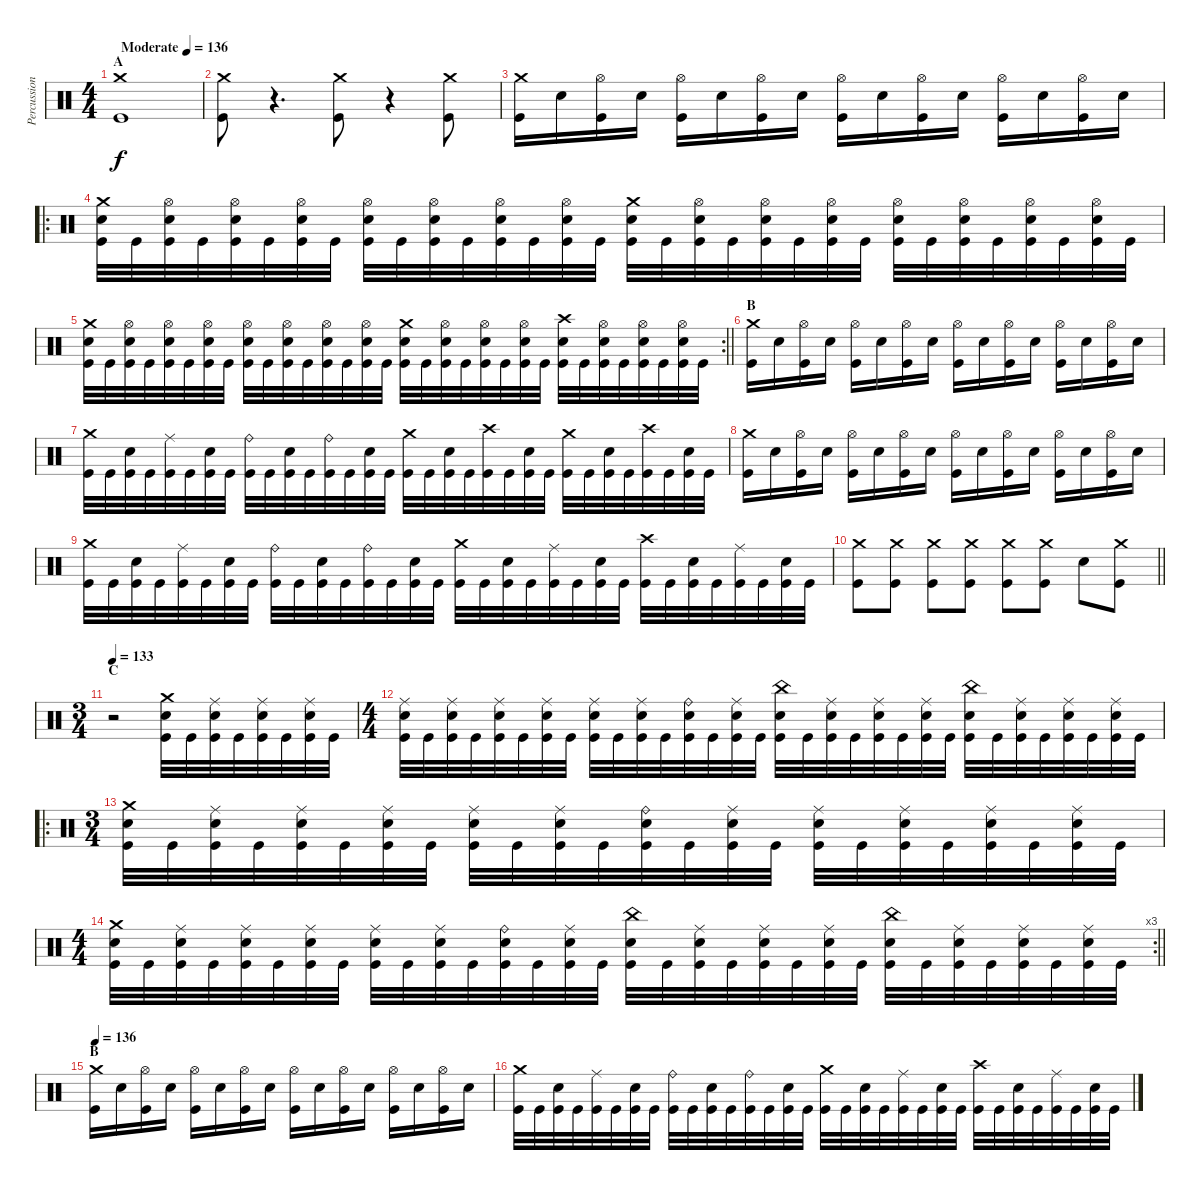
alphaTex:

\track ("Percussion" "Percussion") {instrument percussion}
\staff {score}
\articulation defaults
\ts (4 4)
\section ("" "A")
\tempo (136 "Moderate")
\clef neutral
\ks c
("Kick (hit)" "Crash medium (hit)").1{dy f} |
("Kick (hit)" "Crash medium (hit)").8 r.4{d volume 0} ("Kick (hit)" "Crash medium (hit)").8{volume 13} r.4{volume 0} ("Kick (hit)" "Crash medium (hit)").8{volume 13} |
("Kick (hit)" "Crash medium (hit)").16 "Snare (hit) 2".16 ("Kick (hit)" "Hi-Hat (open)").16 "Snare (hit) 2".16 ("Kick (hit)" "Hi-Hat (open)").16 "Snare (hit) 2".16 ("Kick (hit)" "Hi-Hat (open)").16 "Snare (hit) 2".16 ("Kick (hit)" "Hi-Hat (open)").16 "Snare (hit) 2".16 ("Kick (hit)" "Hi-Hat (open)").16 "Snare (hit) 2".16 ("Kick (hit)" "Hi-Hat (open)").16 "Snare (hit) 2".16 ("Kick (hit)" "Hi-Hat (open)").16 "Snare (hit) 2".16 |
\ro
("Kick (hit)" "Snare (hit) 2" "Crash medium (hit)").32 "Kick (hit)".32 ("Kick (hit)" "Snare (hit) 2" "Hi-Hat (open)").32 "Kick (hit)".32 ("Kick (hit)" "Snare (hit) 2" "Hi-Hat (open)").32 "Kick (hit)".32 ("Kick (hit)" "Snare (hit) 2" "Hi-Hat (open)").32 "Kick (hit)".32 ("Kick (hit)" "Snare (hit) 2" "Hi-Hat (open)").32 "Kick (hit)".32 ("Kick (hit)" "Snare (hit) 2" "Hi-Hat (open)").32 "Kick (hit)".32 ("Kick (hit)" "Snare (hit) 2" "Hi-Hat (open)").32 "Kick (hit)".32 ("Kick (hit)" "Snare (hit) 2" "Hi-Hat (open)").32 "Kick (hit)".32 ("Kick (hit)" "Snare (hit) 2" "Crash medium (hit)").32 "Kick (hit)".32 ("Kick (hit)" "Snare (hit) 2" "Hi-Hat (open)").32 "Kick (hit)".32 ("Kick (hit)" "Snare (hit) 2" "Hi-Hat (open)").32 "Kick (hit)".32 ("Kick (hit)" "Snare (hit) 2" "Hi-Hat (open)").32 "Kick (hit)".32 ("Kick (hit)" "Snare (hit) 2" "Hi-Hat (open)").32 "Kick (hit)".32 ("Kick (hit)" "Snare (hit) 2" "Hi-Hat (open)").32 "Kick (hit)".32 ("Kick (hit)" "Snare (hit) 2" "Hi-Hat (open)").32 "Kick (hit)".32 ("Kick (hit)" "Snare (hit) 2" "Hi-Hat (open)").32 "Kick (hit)".32 |
\rc 2
\barLineRight lightlight
("Kick (hit)" "Snare (hit) 2" "Crash medium (hit)").32 "Kick (hit)".32 ("Kick (hit)" "Snare (hit) 2" "Hi-Hat (open)").32 "Kick (hit)".32 ("Kick (hit)" "Snare (hit) 2" "Hi-Hat (open)").32 "Kick (hit)".32 ("Kick (hit)" "Snare (hit) 2" "Hi-Hat (open)").32 "Kick (hit)".32 ("Kick (hit)" "Snare (hit) 2" "Hi-Hat (open)").32 "Kick (hit)".32 ("Kick (hit)" "Snare (hit) 2" "Hi-Hat (open)").32 "Kick (hit)".32 ("Kick (hit)" "Snare (hit) 2" "Hi-Hat (open)").32 "Kick (hit)".32 ("Kick (hit)" "Snare (hit) 2" "Hi-Hat (open)").32 "Kick (hit)".32 ("Kick (hit)" "Snare (hit) 2" "Crash medium (hit)").32 "Kick (hit)".32 ("Kick (hit)" "Snare (hit) 2" "Hi-Hat (open)").32 "Kick (hit)".32 ("Kick (hit)" "Snare (hit) 2" "Hi-Hat (open)").32 "Kick (hit)".32 ("Kick (hit)" "Snare (hit) 2" "Hi-Hat (open)").32 "Kick (hit)".32 ("Kick (hit)" "Snare (hit) 2" "Crash high (hit)").32 "Kick (hit)".32 ("Kick (hit)" "Snare (hit) 2" "Hi-Hat (open)").32 "Kick (hit)".32 ("Kick (hit)" "Snare (hit) 2" "Hi-Hat (open)").32 "Kick (hit)".32 ("Kick (hit)" "Snare (hit) 2" "Hi-Hat (open)").32 "Kick (hit)".32 |
\section ("" "B")
("Kick (hit)" "Crash medium (hit)").16 "Snare (hit) 2".16 ("Kick (hit)" "Hi-Hat (open)").16 "Snare (hit) 2".16 ("Kick (hit)" "Hi-Hat (open)").16 "Snare (hit) 2".16 ("Kick (hit)" "Hi-Hat (open)").16 "Snare (hit) 2".16 ("Kick (hit)" "Hi-Hat (open)").16 "Snare (hit) 2".16 ("Kick (hit)" "Hi-Hat (open)").16 "Snare (hit) 2".16 ("Kick (hit)" "Hi-Hat (open)").16 "Snare (hit) 2".16 ("Kick (hit)" "Hi-Hat (open)").16 "Snare (hit) 2".16 |
("Kick (hit)" "Crash medium (hit)").32 "Kick (hit)".32 ("Kick (hit)" "Snare (hit) 2").32 "Kick (hit)".32 ("Kick (hit)" "Ride (middle)").32 "Kick (hit)".32 ("Kick (hit)" "Snare (hit) 2").32 "Kick (hit)".32 ("Kick (hit)" "Ride (bell)").32 "Kick (hit)".32 ("Kick (hit)" "Snare (hit) 2").32 "Kick (hit)".32 ("Kick (hit)" "Ride (bell)").32 "Kick (hit)".32 ("Kick (hit)" "Snare (hit) 2").32 "Kick (hit)".32 ("Kick (hit)" "Crash medium (hit)").32 "Kick (hit)".32 ("Kick (hit)" "Snare (hit) 2").32 "Kick (hit)".32 ("Kick (hit)" "Crash high (hit)").32 "Kick (hit)".32 ("Kick (hit)" "Snare (hit) 2").32 "Kick (hit)".32 ("Kick (hit)" "Crash medium (hit)").32 "Kick (hit)".32 ("Kick (hit)" "Snare (hit) 2").32 "Kick (hit)".32 ("Kick (hit)" "Crash high (hit)").32 "Kick (hit)".32 ("Kick (hit)" "Snare (hit) 2").32 "Kick (hit)".32 |
("Kick (hit)" "Crash medium (hit)").16 "Snare (hit) 2".16 ("Kick (hit)" "Hi-Hat (open)").16 "Snare (hit) 2".16 ("Kick (hit)" "Hi-Hat (open)").16 "Snare (hit) 2".16 ("Kick (hit)" "Hi-Hat (open)").16 "Snare (hit) 2".16 ("Kick (hit)" "Hi-Hat (open)").16 "Snare (hit) 2".16 ("Kick (hit)" "Hi-Hat (open)").16 "Snare (hit) 2".16 ("Kick (hit)" "Hi-Hat (open)").16 "Snare (hit) 2".16 ("Kick (hit)" "Hi-Hat (open)").16 "Snare (hit) 2".16 |
("Kick (hit)" "Crash medium (hit)").32 "Kick (hit)".32 ("Kick (hit)" "Snare (hit) 2").32 "Kick (hit)".32 ("Kick (hit)" "Ride (middle)").32 "Kick (hit)".32 ("Kick (hit)" "Snare (hit) 2").32 "Kick (hit)".32 ("Kick (hit)" "Ride (bell)").32 "Kick (hit)".32 ("Kick (hit)" "Snare (hit) 2").32 "Kick (hit)".32 ("Kick (hit)" "Ride (bell)").32 "Kick (hit)".32 ("Kick (hit)" "Snare (hit) 2").32 "Kick (hit)".32 ("Kick (hit)" "Crash medium (hit)").32 "Kick (hit)".32 ("Kick (hit)" "Snare (hit) 2").32 "Kick (hit)".32 ("Kick (hit)" "Ride (middle)").32 "Kick (hit)".32 ("Kick (hit)" "Snare (hit) 2").32 "Kick (hit)".32 ("Kick (hit)" "Crash high (hit)").32 "Kick (hit)".32 ("Kick (hit)" "Snare (hit) 2").32 "Kick (hit)".32 ("Kick (hit)" "Ride (middle)").32 "Kick (hit)".32 ("Kick (hit)" "Snare (hit) 2").32 "Kick (hit)".32 |
\barLineRight lightlight
("Kick (hit)" "Crash medium (hit)").8 ("Kick (hit)" "Crash medium (hit)").8 ("Kick (hit)" "Crash medium (hit)").8 ("Kick (hit)" "Crash medium (hit)").8 ("Kick (hit)" "Crash medium (hit)").8 ("Kick (hit)" "Crash medium (hit)").8 "Snare (hit) 2".8 ("Kick (hit)" "Crash medium (hit)").8 |
\ts (3 4)
\section ("" "C")
\tempo 133
r.2 ("Kick (hit)" "Snare (hit) 2" "Crash medium (hit)").32 "Kick (hit)".32 ("Kick (hit)" "Snare (hit) 2" "Ride (middle)").32 "Kick (hit)".32 ("Kick (hit)" "Snare (hit) 2" "Ride (middle)").32 "Kick (hit)".32 ("Kick (hit)" "Snare (hit) 2" "Ride (middle)").32 "Kick (hit)".32 |
\ts (4 4)
("Kick (hit)" "Snare (hit) 2" "Ride (middle)").32 "Kick (hit)".32 ("Kick (hit)" "Snare (hit) 2" "Ride (middle)").32 "Kick (hit)".32 ("Kick (hit)" "Snare (hit) 2" "Ride (middle)").32 "Kick (hit)".32 ("Kick (hit)" "Snare (hit) 2" "Ride (middle)").32 "Kick (hit)".32 ("Kick (hit)" "Snare (hit) 2" "Ride (middle)").32 "Kick (hit)".32 ("Kick (hit)" "Snare (hit) 2" "Ride (middle)").32 "Kick (hit)".32 ("Kick (hit)" "Snare (hit) 2" "Ride (bell)").32 "Kick (hit)".32 ("Kick (hit)" "Snare (hit) 2" "Ride (middle)").32 "Kick (hit)".32 ("Kick (hit)" "Snare (hit) 2" "China (hit)").32 "Kick (hit)".32 ("Kick (hit)" "Snare (hit) 2" "Ride (middle)").32 "Kick (hit)".32 ("Kick (hit)" "Snare (hit) 2" "Ride (middle)").32 "Kick (hit)".32 ("Kick (hit)" "Snare (hit) 2" "Ride (middle)").32 "Kick (hit)".32 ("Kick (hit)" "Snare (hit) 2" "China (hit)").32 "Kick (hit)".32 ("Kick (hit)" "Snare (hit) 2" "Ride (middle)").32 "Kick (hit)".32 ("Kick (hit)" "Snare (hit) 2" "Ride (middle)").32 "Kick (hit)".32 ("Kick (hit)" "Snare (hit) 2" "Ride (middle)").32 "Kick (hit)".32 |
\ro
\ts (3 4)
("Kick (hit)" "Snare (hit) 2" "Crash medium (hit)").32 "Kick (hit)".32 ("Kick (hit)" "Snare (hit) 2" "Ride (middle)").32 "Kick (hit)".32 ("Kick (hit)" "Snare (hit) 2" "Ride (middle)").32 "Kick (hit)".32 ("Kick (hit)" "Snare (hit) 2" "Ride (middle)").32 "Kick (hit)".32 ("Kick (hit)" "Snare (hit) 2" "Ride (middle)").32 "Kick (hit)".32 ("Kick (hit)" "Snare (hit) 2" "Ride (middle)").32 "Kick (hit)".32 ("Kick (hit)" "Snare (hit) 2" "Ride (bell)").32 "Kick (hit)".32 ("Kick (hit)" "Snare (hit) 2" "Ride (middle)").32 "Kick (hit)".32 ("Kick (hit)" "Snare (hit) 2" "Ride (middle)").32 "Kick (hit)".32 ("Kick (hit)" "Snare (hit) 2" "Ride (middle)").32 "Kick (hit)".32 ("Kick (hit)" "Snare (hit) 2" "Ride (middle)").32 "Kick (hit)".32 ("Kick (hit)" "Snare (hit) 2" "Ride (middle)").32 "Kick (hit)".32 |
\rc 3
\ts (4 4)
\barLineRight lightlight
("Kick (hit)" "Snare (hit) 2" "Crash medium (hit)").32 "Kick (hit)".32 ("Kick (hit)" "Snare (hit) 2" "Ride (middle)").32 "Kick (hit)".32 ("Kick (hit)" "Snare (hit) 2" "Ride (middle)").32 "Kick (hit)".32 ("Kick (hit)" "Snare (hit) 2" "Ride (middle)").32 "Kick (hit)".32 ("Kick (hit)" "Snare (hit) 2" "Ride (middle)").32 "Kick (hit)".32 ("Kick (hit)" "Snare (hit) 2" "Ride (middle)").32 "Kick (hit)".32 ("Kick (hit)" "Snare (hit) 2" "Ride (bell)").32 "Kick (hit)".32 ("Kick (hit)" "Snare (hit) 2" "Ride (middle)").32 "Kick (hit)".32 ("Kick (hit)" "Snare (hit) 2" "China (hit)").32 "Kick (hit)".32 ("Kick (hit)" "Snare (hit) 2" "Ride (middle)").32 "Kick (hit)".32 ("Kick (hit)" "Snare (hit) 2" "Ride (middle)").32 "Kick (hit)".32 ("Kick (hit)" "Snare (hit) 2" "Ride (middle)").32 "Kick (hit)".32 ("Kick (hit)" "Snare (hit) 2" "China (hit)").32 "Kick (hit)".32 ("Kick (hit)" "Snare (hit) 2" "Ride (middle)").32 "Kick (hit)".32 ("Kick (hit)" "Snare (hit) 2" "Ride (middle)").32 "Kick (hit)".32 ("Kick (hit)" "Snare (hit) 2" "Ride (middle)").32 "Kick (hit)".32 |
\section ("" "B")
\tempo 136
("Kick (hit)" "Crash medium (hit)").16 "Snare (hit) 2".16 ("Kick (hit)" "Hi-Hat (open)").16 "Snare (hit) 2".16 ("Kick (hit)" "Hi-Hat (open)").16 "Snare (hit) 2".16 ("Kick (hit)" "Hi-Hat (open)").16 "Snare (hit) 2".16 ("Kick (hit)" "Hi-Hat (open)").16 "Snare (hit) 2".16 ("Kick (hit)" "Hi-Hat (open)").16 "Snare (hit) 2".16 ("Kick (hit)" "Hi-Hat (open)").16 "Snare (hit) 2".16 ("Kick (hit)" "Hi-Hat (open)").16 "Snare (hit) 2".16 |
("Kick (hit)" "Crash medium (hit)").32 "Kick (hit)".32 ("Kick (hit)" "Snare (hit) 2").32 "Kick (hit)".32 ("Kick (hit)" "Ride (middle)").32 "Kick (hit)".32 ("Kick (hit)" "Snare (hit) 2").32 "Kick (hit)".32 ("Kick (hit)" "Ride (bell)").32 "Kick (hit)".32 ("Kick (hit)" "Snare (hit) 2").32 "Kick (hit)".32 ("Kick (hit)" "Ride (bell)").32 "Kick (hit)".32 ("Kick (hit)" "Snare (hit) 2").32 "Kick (hit)".32 ("Kick (hit)" "Crash medium (hit)").32 "Kick (hit)".32 ("Kick (hit)" "Snare (hit) 2").32 "Kick (hit)".32 ("Kick (hit)" "Ride (middle)").32 "Kick (hit)".32 ("Kick (hit)" "Snare (hit) 2").32 "Kick (hit)".32 ("Kick (hit)" "Crash high (hit)").32 "Kick (hit)".32 ("Kick (hit)" "Snare (hit) 2").32 "Kick (hit)".32 ("Kick (hit)" "Ride (middle)").32 "Kick (hit)".32 ("Kick (hit)" "Snare (hit) 2").32 "Kick (hit)".32
